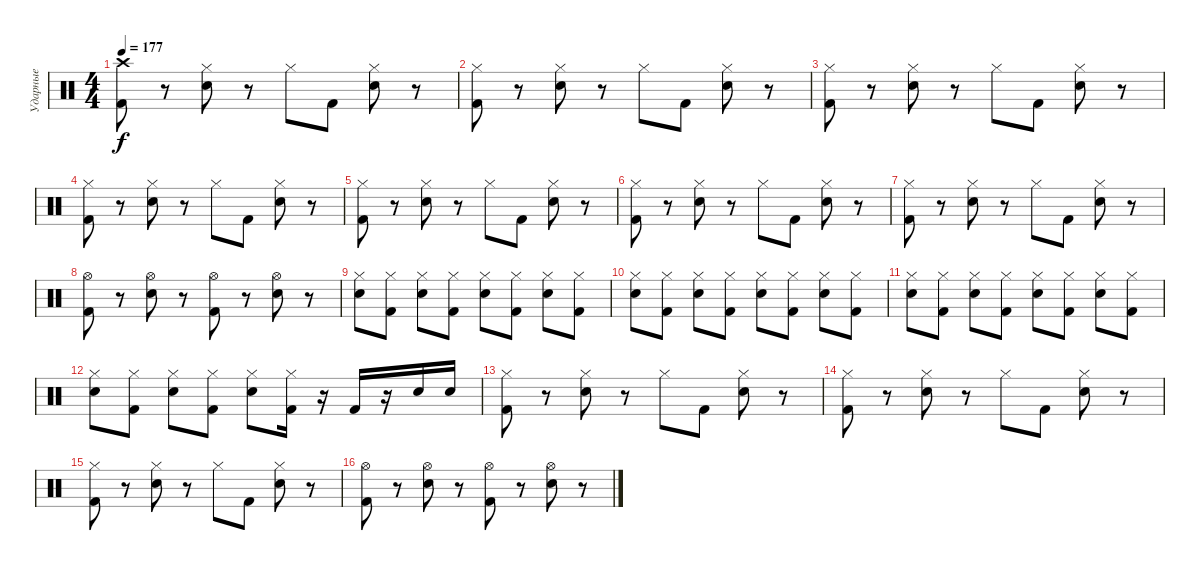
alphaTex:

\track ("Ударные" "Ударные") {instrument percussion}
\staff {score}
\articulation defaults
\ts (4 4)
\tempo 177
\clef neutral
\ks c
("Kick (hit) 2" "Crash high (hit)").8{dy f} r.8 ("Electric Snare (hit)" "Hi-Hat (closed)").8 r.8 "Hi-Hat (closed)".8 "Kick (hit) 2".8 ("Electric Snare (hit)" "Hi-Hat (closed)").8 r.8 |
("Kick (hit) 2" "Hi-Hat (closed)").8 r.8 ("Electric Snare (hit)" "Hi-Hat (closed)").8 r.8 "Hi-Hat (closed)".8 "Kick (hit) 2".8 ("Electric Snare (hit)" "Hi-Hat (closed)").8 r.8 |
("Kick (hit) 2" "Hi-Hat (closed)").8 r.8 ("Electric Snare (hit)" "Hi-Hat (closed)").8 r.8 "Hi-Hat (closed)".8 "Kick (hit) 2".8 ("Electric Snare (hit)" "Hi-Hat (closed)").8 r.8 |
("Kick (hit) 2" "Hi-Hat (closed)").8 r.8 ("Electric Snare (hit)" "Hi-Hat (closed)").8 r.8 "Hi-Hat (closed)".8 "Kick (hit) 2".8 ("Electric Snare (hit)" "Hi-Hat (closed)").8 r.8 |
("Kick (hit) 2" "Hi-Hat (closed)").8 r.8 ("Electric Snare (hit)" "Hi-Hat (closed)").8 r.8 "Hi-Hat (closed)".8 "Kick (hit) 2".8 ("Electric Snare (hit)" "Hi-Hat (closed)").8 r.8 |
("Kick (hit) 2" "Hi-Hat (closed)").8 r.8 ("Electric Snare (hit)" "Hi-Hat (closed)").8 r.8 "Hi-Hat (closed)".8 "Kick (hit) 2".8 ("Electric Snare (hit)" "Hi-Hat (closed)").8 r.8 |
("Kick (hit) 2" "Hi-Hat (closed)").8 r.8 ("Electric Snare (hit)" "Hi-Hat (closed)").8 r.8 "Hi-Hat (closed)".8 "Kick (hit) 2".8 ("Electric Snare (hit)" "Hi-Hat (closed)").8 r.8 |
("Kick (hit) 2" "Hi-Hat (open)").8 r.8 ("Electric Snare (hit)" "Hi-Hat (open)").8 r.8 ("Kick (hit) 2" "Hi-Hat (open)").8 r.8 ("Electric Snare (hit)" "Hi-Hat (open)").8 r.8 |
("Electric Snare (hit)" "Hi-Hat (closed)").8 ("Kick (hit) 2" "Hi-Hat (closed)").8 ("Electric Snare (hit)" "Hi-Hat (closed)").8 ("Kick (hit) 2" "Hi-Hat (closed)").8 ("Electric Snare (hit)" "Hi-Hat (closed)").8 ("Kick (hit) 2" "Hi-Hat (closed)").8 ("Electric Snare (hit)" "Hi-Hat (closed)").8 ("Kick (hit) 2" "Hi-Hat (closed)").8 |
("Electric Snare (hit)" "Hi-Hat (closed)").8 ("Kick (hit) 2" "Hi-Hat (closed)").8 ("Electric Snare (hit)" "Hi-Hat (closed)").8 ("Kick (hit) 2" "Hi-Hat (closed)").8 ("Electric Snare (hit)" "Hi-Hat (closed)").8 ("Kick (hit) 2" "Hi-Hat (closed)").8 ("Electric Snare (hit)" "Hi-Hat (closed)").8 ("Kick (hit) 2" "Hi-Hat (closed)").8 |
("Electric Snare (hit)" "Hi-Hat (closed)").8 ("Kick (hit) 2" "Hi-Hat (closed)").8 ("Electric Snare (hit)" "Hi-Hat (closed)").8 ("Kick (hit) 2" "Hi-Hat (closed)").8 ("Electric Snare (hit)" "Hi-Hat (closed)").8 ("Kick (hit) 2" "Hi-Hat (closed)").8 ("Electric Snare (hit)" "Hi-Hat (closed)").8 ("Kick (hit) 2" "Hi-Hat (closed)").8 |
("Electric Snare (hit)" "Hi-Hat (closed)").8 ("Kick (hit) 2" "Hi-Hat (closed)").8 ("Electric Snare (hit)" "Hi-Hat (closed)").8 ("Kick (hit) 2" "Hi-Hat (closed)").8 ("Electric Snare (hit)" "Hi-Hat (closed)").8 ("Kick (hit) 2" "Hi-Hat (closed)").16 r.16 "Kick (hit) 2".16 r.16 "Electric Snare (hit)".16 "Electric Snare (hit)".16 |
("Kick (hit) 2" "Hi-Hat (closed)").8 r.8 ("Electric Snare (hit)" "Hi-Hat (closed)").8 r.8 "Hi-Hat (closed)".8 "Kick (hit) 2".8 ("Electric Snare (hit)" "Hi-Hat (closed)").8 r.8 |
("Kick (hit) 2" "Hi-Hat (closed)").8 r.8 ("Electric Snare (hit)" "Hi-Hat (closed)").8 r.8 "Hi-Hat (closed)".8 "Kick (hit) 2".8 ("Electric Snare (hit)" "Hi-Hat (closed)").8 r.8 |
("Kick (hit) 2" "Hi-Hat (closed)").8 r.8 ("Electric Snare (hit)" "Hi-Hat (closed)").8 r.8 "Hi-Hat (closed)".8 "Kick (hit) 2".8 ("Electric Snare (hit)" "Hi-Hat (closed)").8 r.8 |
("Kick (hit) 2" "Hi-Hat (open)").8 r.8 ("Electric Snare (hit)" "Hi-Hat (open)").8 r.8 ("Kick (hit) 2" "Hi-Hat (open)").8 r.8 ("Electric Snare (hit)" "Hi-Hat (open)").8 r.8
